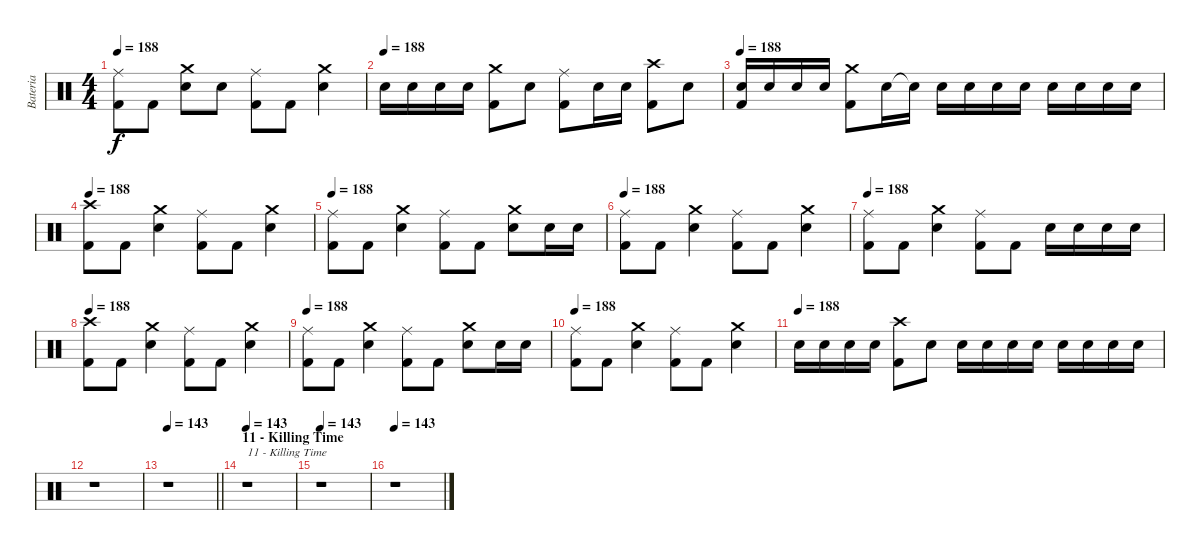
\track ("Bateria" "Bateria") {instrument percussion}
\staff {score}
\articulation defaults
\ts (4 4)
\tempo 188
\clef neutral
\ks c
("Ride (middle)" "Kick (hit) 2").8{dy f} "Kick (hit) 2".8 ("Crash medium (hit)" "Electric Snare (hit)").8 "Electric Snare (hit)".8 ("Ride (middle)" "Kick (hit) 2").8 "Kick (hit) 2".8 ("Crash medium (hit)" "Electric Snare (hit)").4 |
\tempo (188)
"Electric Snare (hit)".16 "Electric Snare (hit)".16 "Electric Snare (hit)".16 "Electric Snare (hit)".16 ("Crash medium (hit)" "Kick (hit) 2").8 "Electric Snare (hit)".8 ("Ride (middle)" "Kick (hit) 2").8 "Electric Snare (hit)".16 "Electric Snare (hit)".16 ("Crash high (hit)" "Kick (hit) 2").8 "Electric Snare (hit)".8 |
\tempo 188
("Electric Snare (hit)" "Kick (hit) 2").16 "Electric Snare (hit)".16 "Electric Snare (hit)".16 "Electric Snare (hit)".16 ("Crash medium (hit)" "Kick (hit) 2").8 "Electric Snare (hit)".16 "Electric Snare (hit)"{t}.16 "Electric Snare (hit)".16 "Electric Snare (hit)".16 "Electric Snare (hit)".16 "Electric Snare (hit)".16 "Electric Snare (hit)".16 "Electric Snare (hit)".16 "Electric Snare (hit)".16 "Electric Snare (hit)".16 |
\tempo 188
("Crash high (hit)" "Kick (hit) 2").8 "Kick (hit) 2".8 ("Crash medium (hit)" "Electric Snare (hit)").4 ("Ride (middle)" "Kick (hit) 2").8 "Kick (hit) 2".8 ("Crash medium (hit)" "Electric Snare (hit)").4 |
\tempo 188
("Ride (middle)" "Kick (hit) 2").8 "Kick (hit) 2".8 ("Crash medium (hit)" "Electric Snare (hit)").4 ("Ride (middle)" "Kick (hit) 2").8 "Kick (hit) 2".8 ("Crash medium (hit)" "Electric Snare (hit)").8 "Electric Snare (hit)".16 "Electric Snare (hit)".16 |
\tempo 188
("Ride (middle)" "Kick (hit) 2").8 "Kick (hit) 2".8 ("Crash medium (hit)" "Electric Snare (hit)").4 ("Ride (middle)" "Kick (hit) 2").8 "Kick (hit) 2".8 ("Crash medium (hit)" "Electric Snare (hit)").4 |
\tempo 188
("Ride (middle)" "Kick (hit) 2").8 "Kick (hit) 2".8 ("Crash medium (hit)" "Electric Snare (hit)").4 ("Ride (middle)" "Kick (hit) 2").8 "Kick (hit) 2".8 "Electric Snare (hit)".16 "Electric Snare (hit)".16 "Electric Snare (hit)".16 "Electric Snare (hit)".16 |
\tempo 188
("Crash high (hit)" "Kick (hit) 2").8 "Kick (hit) 2".8 ("Crash medium (hit)" "Electric Snare (hit)").4 ("Ride (middle)" "Kick (hit) 2").8 "Kick (hit) 2".8 ("Crash medium (hit)" "Electric Snare (hit)").4 |
\tempo 188
("Ride (middle)" "Kick (hit) 2").8 "Kick (hit) 2".8 ("Crash medium (hit)" "Electric Snare (hit)").4 ("Ride (middle)" "Kick (hit) 2").8 "Kick (hit) 2".8 ("Crash medium (hit)" "Electric Snare (hit)").8 "Electric Snare (hit)".16 "Electric Snare (hit)".16 |
\tempo 188
("Ride (middle)" "Kick (hit) 2").8 "Kick (hit) 2".8 ("Crash medium (hit)" "Electric Snare (hit)").4 ("Ride (middle)" "Kick (hit) 2").8 "Kick (hit) 2".8 ("Crash medium (hit)" "Electric Snare (hit)").4 |
\tempo (188)
"Electric Snare (hit)".16 "Electric Snare (hit)".16 "Electric Snare (hit)".16 "Electric Snare (hit)".16 ("Crash high (hit)" "Kick (hit) 2").8 "Electric Snare (hit)".8 "Electric Snare (hit)".16 "Electric Snare (hit)".16 "Electric Snare (hit)".16 "Electric Snare (hit)".16 "Electric Snare (hit)".16 "Electric Snare (hit)".16 "Electric Snare (hit)".16 "Electric Snare (hit)".16 |
r.1{volume 13} |
\tempo 143
\barLineRight lightlight
r.1 |
\section ("" "11 - Killing Time")
\tempo 143
r.1{txt "11 - Killing Time"} |
\tempo 143
r.1 |
\tempo 143
r.1
